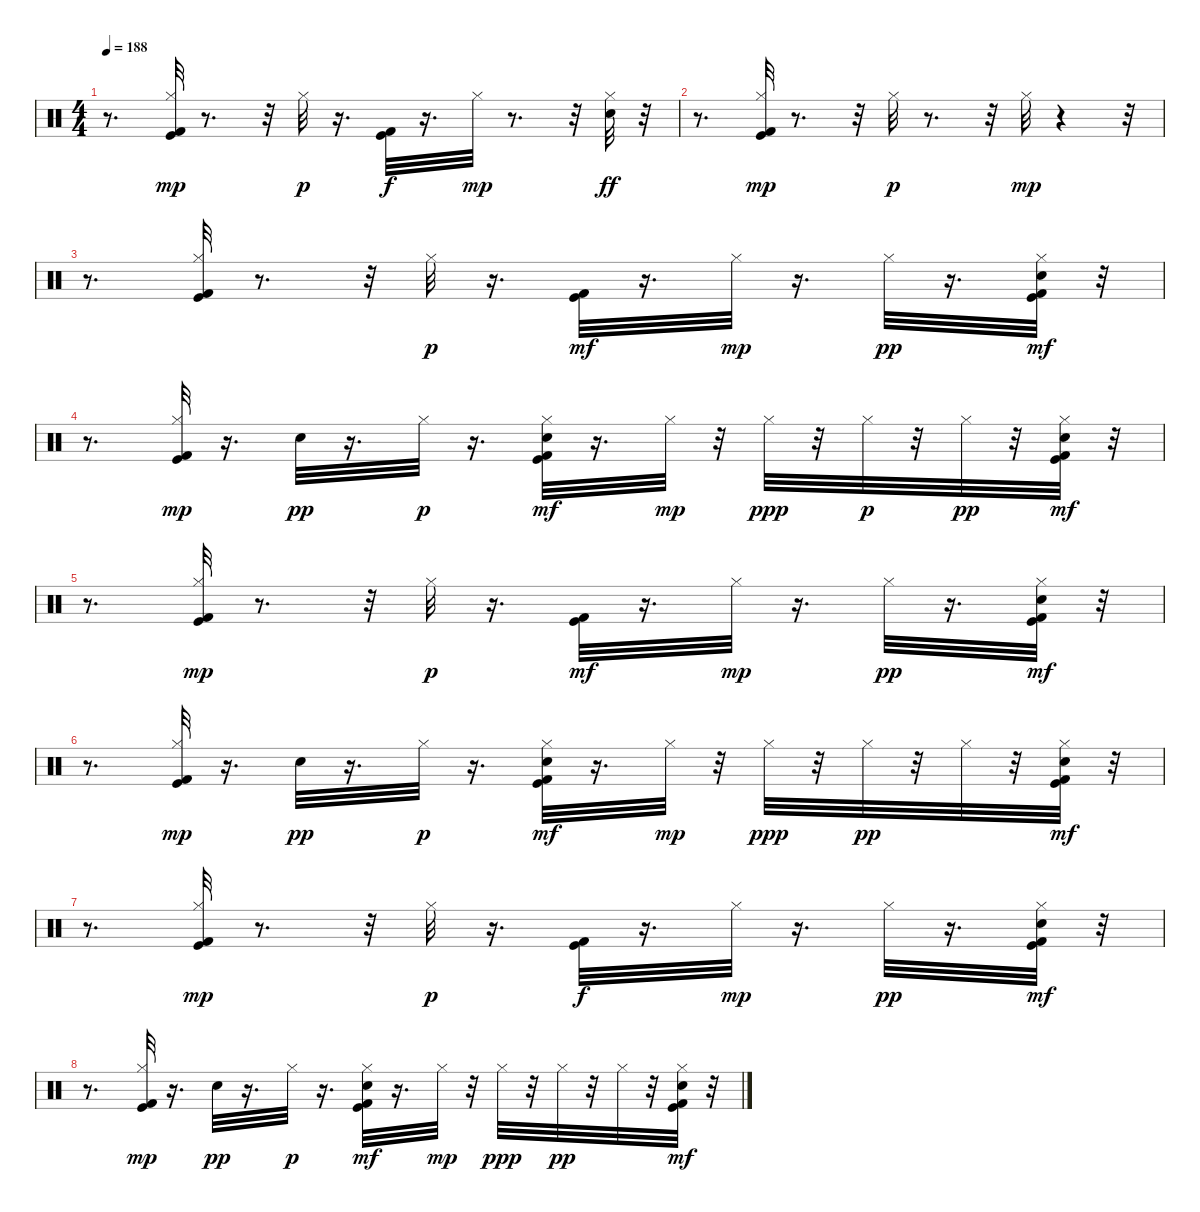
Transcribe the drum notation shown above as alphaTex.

\track "" {instrument percussion}
\staff {score}
\articulation defaults
\ts (4 4)
\tempo 188
\clef neutral
\ks c
r.8{d dy mf} ("Kick (hit) 2" "Hi-Hat (closed)" "Kick (hit)").32{dy mp} r.8{d} r.32 "Hi-Hat (closed)".32{dy p} r.16{d} ("Kick (hit) 2" "Kick (hit)").32{dy f} r.16{d} "Hi-Hat (closed)".32{dy mp} r.8{d} r.32 ("Hi-Hat (closed)" "Electric Snare (hit)").32{dy ff} r.32 |
r.8{d} ("Kick (hit) 2" "Hi-Hat (closed)" "Kick (hit)").32{dy mp} r.8{d} r.32 "Hi-Hat (closed)".32{dy p} r.8{d} r.32 "Hi-Hat (closed)".32{dy mp} r.4 r.32 |
r.8{d} ("Kick (hit) 2" "Hi-Hat (closed)" "Kick (hit)").32 r.8{d} r.32 "Hi-Hat (closed)".32{dy p} r.16{d} ("Kick (hit) 2" "Kick (hit)").32{dy mf} r.16{d} "Hi-Hat (closed)".32{dy mp} r.16{d} "Hi-Hat (closed)".32{dy pp} r.16{d} ("Kick (hit) 2" "Hi-Hat (closed)" "Electric Snare (hit)" "Kick (hit)").32{dy mf} r.32 |
r.8{d} ("Kick (hit) 2" "Hi-Hat (closed)" "Kick (hit)").32{dy mp} r.16{d} "Electric Snare (hit)".32{dy pp} r.16{d} "Hi-Hat (closed)".32{dy p} r.16{d} ("Kick (hit) 2" "Electric Snare (hit)" "Hi-Hat (closed)" "Kick (hit)").32{dy mf} r.16{d} "Hi-Hat (closed)".32{dy mp} r.32 "Hi-Hat (closed)".32{dy ppp} r.32 "Hi-Hat (closed)".32{dy p} r.32 "Hi-Hat (closed)".32{dy pp} r.32 ("Kick (hit) 2" "Electric Snare (hit)" "Hi-Hat (closed)" "Kick (hit)").32{dy mf} r.32 |
r.8{d} ("Kick (hit) 2" "Hi-Hat (closed)" "Kick (hit)").32{dy mp} r.8{d} r.32 "Hi-Hat (closed)".32{dy p} r.16{d} ("Kick (hit) 2" "Kick (hit)").32{dy mf} r.16{d} "Hi-Hat (closed)".32{dy mp} r.16{d} "Hi-Hat (closed)".32{dy pp} r.16{d} ("Kick (hit) 2" "Hi-Hat (closed)" "Electric Snare (hit)" "Kick (hit)").32{dy mf} r.32 |
r.8{d} ("Kick (hit) 2" "Hi-Hat (closed)" "Kick (hit)").32{dy mp} r.16{d} "Electric Snare (hit)".32{dy pp} r.16{d} "Hi-Hat (closed)".32{dy p} r.16{d} ("Kick (hit) 2" "Electric Snare (hit)" "Hi-Hat (closed)" "Kick (hit)").32{dy mf} r.16{d} "Hi-Hat (closed)".32{dy mp} r.32 "Hi-Hat (closed)".32{dy ppp} r.32 "Hi-Hat (closed)".32{dy pp} r.32 "Hi-Hat (closed)".32 r.32 ("Kick (hit) 2" "Hi-Hat (closed)" "Electric Snare (hit)" "Kick (hit)").32{dy mf} r.32 |
r.8{d} ("Kick (hit) 2" "Hi-Hat (closed)" "Kick (hit)").32{dy mp} r.8{d} r.32 "Hi-Hat (closed)".32{dy p} r.16{d} ("Kick (hit) 2" "Kick (hit)").32{dy f} r.16{d} "Hi-Hat (closed)".32{dy mp} r.16{d} "Hi-Hat (closed)".32{dy pp} r.16{d} ("Kick (hit) 2" "Hi-Hat (closed)" "Electric Snare (hit)" "Kick (hit)").32{dy mf} r.32 |
r.8{d} ("Kick (hit) 2" "Hi-Hat (closed)" "Kick (hit)").32{dy mp} r.16{d} "Electric Snare (hit)".32{dy pp} r.16{d} "Hi-Hat (closed)".32{dy p} r.16{d} ("Kick (hit) 2" "Electric Snare (hit)" "Hi-Hat (closed)" "Kick (hit)").32{dy mf} r.16{d} "Hi-Hat (closed)".32{dy mp} r.32 "Hi-Hat (closed)".32{dy ppp} r.32 "Hi-Hat (closed)".32{dy pp} r.32 "Hi-Hat (closed)".32 r.32 ("Kick (hit) 2" "Hi-Hat (closed)" "Electric Snare (hit)" "Kick (hit)").32{dy mf} r.32
